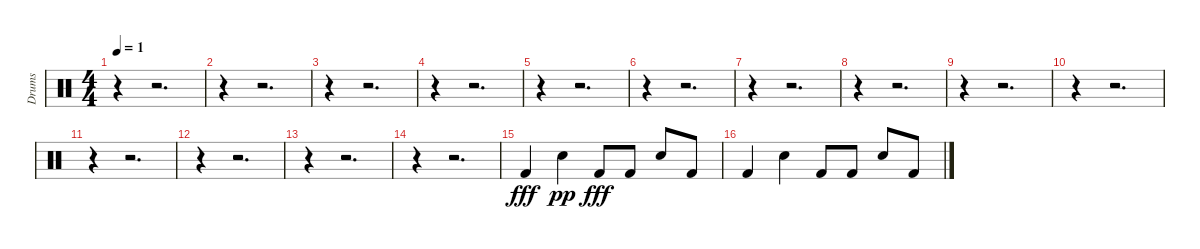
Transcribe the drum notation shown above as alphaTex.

\track ("Drums" "Drums") {instrument percussion}
\staff {score}
\articulation defaults
\ts (4 4)
\tempo 1
\clef neutral
\ks c
r.4{dy fff} r.2{d} |
r.4 r.2{d} |
r.4 r.2{d} |
r.4 r.2{d} |
r.4 r.2{d} |
r.4 r.2{d} |
r.4 r.2{d} |
r.4 r.2{d} |
r.4 r.2{d} |
r.4 r.2{d} |
r.4 r.2{d} |
r.4 r.2{d} |
r.4 r.2{d} |
r.4 r.2{d} |
"Kick (hit) 2".4 "Snare (hit) 2".4{dy pp} "Kick (hit) 2".8{dy fff} "Kick (hit) 2".8 "Snare (hit) 2".8 "Kick (hit) 2".8 |
"Kick (hit) 2".4 "Snare (hit) 2".4 "Kick (hit) 2".8 "Kick (hit) 2".8 "Snare (hit) 2".8 "Kick (hit) 2".8
